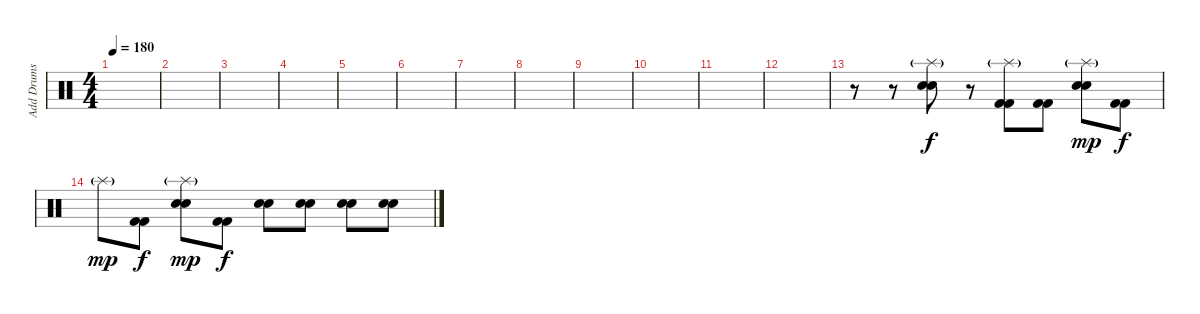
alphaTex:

\track ("Add Drums" "Add Drums") {instrument percussion}
\staff {score}
\articulation defaults
\ts (4 4)
\tempo 180
\clef neutral
\ks c
|
|
|
|
|
|
|
|
|
|
|
|
r.8 r.8 ("Splash (hit)"{g} "Hand Clap (hit)" "Electric Snare (hit)").8{volume 9} r.8 ("Splash (hit)"{g} "Kick (hit) 2" "Kick (hit) 2").8 ("Kick (hit) 2" "Kick (hit) 2").8{dy f} ("Splash (hit)"{g} "Hand Clap (hit)" "Electric Snare (hit)").8{dy mp} ("Kick (hit) 2" "Kick (hit) 2").8{dy f} |
"Splash (hit)"{g}.8{dy mp} ("Kick (hit) 2" "Kick (hit) 2").8{dy f} ("Splash (hit)"{g} "Hand Clap (hit)" "Electric Snare (hit)").8{dy mp} ("Kick (hit) 2" "Kick (hit) 2").8{dy f} ("Hand Clap (hit)" "Electric Snare (hit)").8 ("Hand Clap (hit)" "Electric Snare (hit)").8 ("Hand Clap (hit)" "Electric Snare (hit)").8 ("Hand Clap (hit)" "Electric Snare (hit)").8
